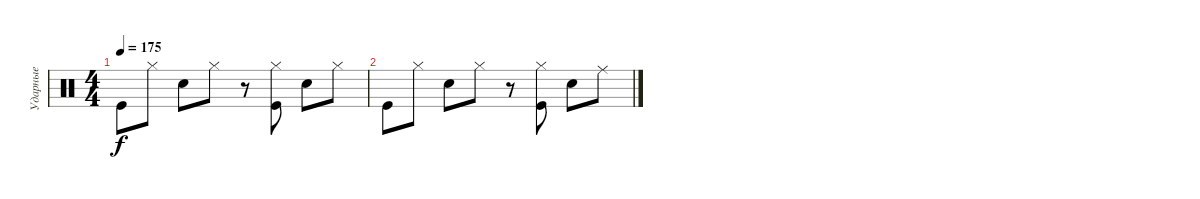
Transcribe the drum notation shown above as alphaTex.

\track ("Ударные" "Ударные") {instrument percussion}
\staff {score}
\articulation defaults
\ts (4 4)
\tempo 175
\clef neutral
\ks c "Kick (hit)".8{dy f} "Hi-Hat (closed)".8 "Electric Snare (hit)".8 "Hi-Hat (closed)".8
r.8 ("Hi-Hat (closed)" "Kick (hit)").8 "Electric Snare (hit)".8 "Hi-Hat (closed)".8 |
"Kick (hit)".8 "Hi-Hat (closed)".8 "Electric Snare (hit)".8 "Hi-Hat (closed)".8 r.8 ("Hi-Hat (closed)" "Kick (hit)").8 "Electric Snare (hit)".8 "Ride (middle)".8
